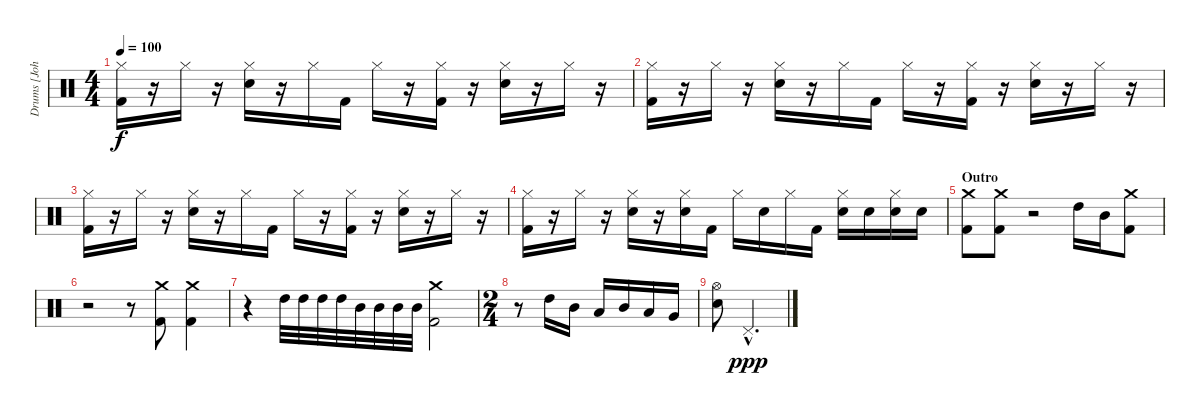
\track ("Drums [John Otto]" "Drums [Joh") {instrument percussion}
\staff {score}
\articulation defaults
\ts (4 4)
\tempo 100
\clef neutral
\ks c
("Hi-Hat (closed)" "Kick (hit) 2").16{dy f} r.16 "Hi-Hat (closed)".16 r.16 ("Hi-Hat (closed)" "Electric Snare (hit)").16 r.16 "Hi-Hat (closed)".16 "Kick (hit) 2".16 "Hi-Hat (closed)".16 r.16 ("Hi-Hat (closed)" "Kick (hit) 2").16 r.16 ("Hi-Hat (closed)" "Electric Snare (hit)").16 r.16 "Hi-Hat (closed)".16 r.16 |
("Hi-Hat (closed)" "Kick (hit) 2").16 r.16 "Hi-Hat (closed)".16 r.16 ("Hi-Hat (closed)" "Electric Snare (hit)").16 r.16 "Hi-Hat (closed)".16 "Kick (hit) 2".16 "Hi-Hat (closed)".16 r.16 ("Hi-Hat (closed)" "Kick (hit) 2").16 r.16 ("Hi-Hat (closed)" "Electric Snare (hit)").16 r.16 "Hi-Hat (closed)".16 r.16 |
("Hi-Hat (closed)" "Kick (hit) 2").16 r.16 "Hi-Hat (closed)".16 r.16 ("Hi-Hat (closed)" "Electric Snare (hit)").16 r.16 "Hi-Hat (closed)".16 "Kick (hit) 2".16 "Hi-Hat (closed)".16 r.16 ("Hi-Hat (closed)" "Kick (hit) 2").16 r.16 ("Hi-Hat (closed)" "Electric Snare (hit)").16 r.16 "Hi-Hat (closed)".16 r.16 |
("Hi-Hat (closed)" "Kick (hit) 2").16 r.16 "Hi-Hat (closed)".16 r.16 ("Hi-Hat (closed)" "Electric Snare (hit)").16 r.16 ("Hi-Hat (closed)" "Electric Snare (hit)").16 "Kick (hit) 2".16 "Hi-Hat (closed)".16 "Electric Snare (hit)".16 "Hi-Hat (closed)".16 "Kick (hit) 2".16 ("Hi-Hat (closed)" "Electric Snare (hit)").16 "Electric Snare (hit)".16 ("Hi-Hat (closed)" "Electric Snare (hit)").16 "Electric Snare (hit)".16 |
\section ("" "Outro")
("Crash medium (hit)" "Kick (hit) 2").8 ("Crash medium (hit)" "Kick (hit) 2").8 r.2 "High Tom (hit)".16 "Mid Tom (hit)".16 ("Crash medium (hit)" "Kick (hit) 2").8 |
r.2 r.8 ("Crash medium (hit)" "Kick (hit) 2").8 ("Crash medium (hit)" "Kick (hit) 2").4 |
r.4 "High Tom (hit)".32 "High Tom (hit)".32 "High Tom (hit)".32 "High Tom (hit)".32 "Mid Tom (hit)".32 "Mid Tom (hit)".32 "Mid Tom (hit)".32 "Mid Tom (hit)".32 ("Crash medium (hit)" "Kick (hit) 2").2 |
\ts (2 4)
r.8 "High Tom (hit)".16 "Mid Tom (hit)".16 "Low Tom (hit)".16 "Mid Tom (hit)".16 "Low Tom (hit)".16 "Very Low Tom (hit)".16 |
("Hi-Hat (open)" "Electric Snare (hit)").8 "Pedal Hi-Hat (hit)"{hac}.4{d dy ppp}
